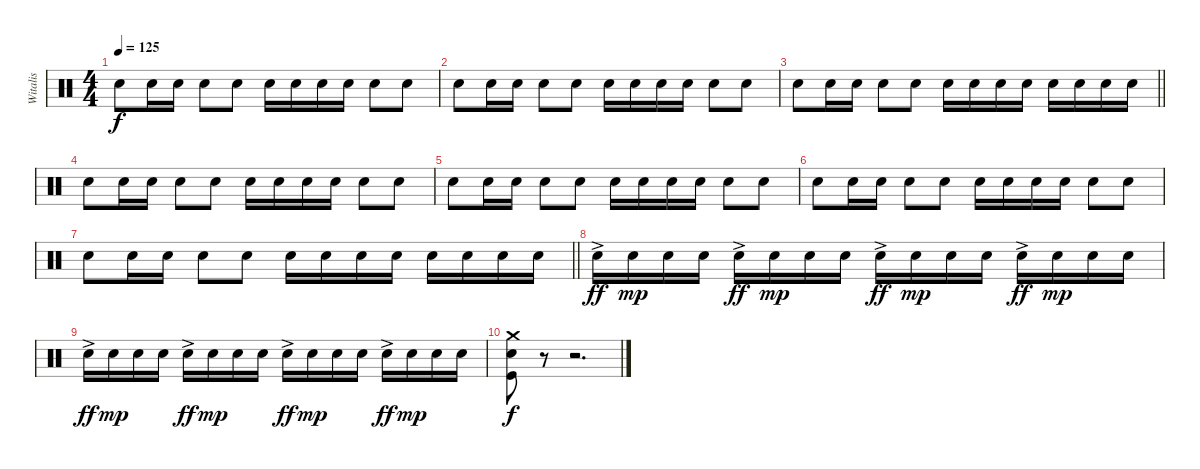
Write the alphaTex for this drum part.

\track ("Witalis" "Witalis") {instrument percussion}
\staff {score}
\articulation defaults
\ts (4 4)
\tempo 125
\clef neutral
\ks c "Snare (hit) 2".8{dy f} "Snare (hit) 2".16 "Snare (hit) 2".16 "Snare (hit) 2".8 "Snare (hit) 2".8 "Snare (hit) 2".16 "Snare (hit) 2".16 "Snare (hit) 2".16 "Snare (hit) 2".16 "Snare (hit) 2".8 "Snare (hit) 2".8
|
"Snare (hit) 2".8 "Snare (hit) 2".16 "Snare (hit) 2".16 "Snare (hit) 2".8 "Snare (hit) 2".8 "Snare (hit) 2".16 "Snare (hit) 2".16 "Snare (hit) 2".16 "Snare (hit) 2".16 "Snare (hit) 2".8 "Snare (hit) 2".8 |
\barLineRight lightlight "Snare (hit) 2".8 "Snare (hit) 2".16 "Snare (hit) 2".16 "Snare (hit) 2".8 "Snare (hit) 2".8 "Snare (hit) 2".16 "Snare (hit) 2".16 "Snare (hit) 2".16 "Snare (hit) 2".16 "Snare (hit) 2".16 "Snare (hit) 2".16 "Snare (hit) 2".16 "Snare (hit) 2".16
|
"Snare (hit) 2".8 "Snare (hit) 2".16 "Snare (hit) 2".16 "Snare (hit) 2".8 "Snare (hit) 2".8 "Snare (hit) 2".16 "Snare (hit) 2".16 "Snare (hit) 2".16 "Snare (hit) 2".16 "Snare (hit) 2".8 "Snare (hit) 2".8 |
"Snare (hit) 2".8 "Snare (hit) 2".16 "Snare (hit) 2".16 "Snare (hit) 2".8 "Snare (hit) 2".8 "Snare (hit) 2".16 "Snare (hit) 2".16 "Snare (hit) 2".16 "Snare (hit) 2".16 "Snare (hit) 2".8 "Snare (hit) 2".8 |
"Snare (hit) 2".8 "Snare (hit) 2".16 "Snare (hit) 2".16 "Snare (hit) 2".8 "Snare (hit) 2".8 "Snare (hit) 2".16 "Snare (hit) 2".16 "Snare (hit) 2".16 "Snare (hit) 2".16 "Snare (hit) 2".8 "Snare (hit) 2".8 |
\barLineRight lightlight "Snare (hit) 2".8 "Snare (hit) 2".16 "Snare (hit) 2".16 "Snare (hit) 2".8 "Snare (hit) 2".8 "Snare (hit) 2".16 "Snare (hit) 2".16 "Snare (hit) 2".16 "Snare (hit) 2".16 "Snare (hit) 2".16 "Snare (hit) 2".16 "Snare (hit) 2".16 "Snare (hit) 2".16
|
"Snare (hit) 2"{ac}.16{dy ff} "Snare (hit) 2".16{dy mp} "Snare (hit) 2".16 "Snare (hit) 2".16 "Snare (hit) 2"{ac}.16{dy ff} "Snare (hit) 2".16{dy mp} "Snare (hit) 2".16 "Snare (hit) 2".16 "Snare (hit) 2"{ac}.16{dy ff} "Snare (hit) 2".16{dy mp} "Snare (hit) 2".16 "Snare (hit) 2".16 "Snare (hit) 2"{ac}.16{dy ff} "Snare (hit) 2".16{dy mp} "Snare (hit) 2".16 "Snare (hit) 2".16 |
"Snare (hit) 2"{ac}.16{dy ff} "Snare (hit) 2".16{dy mp} "Snare (hit) 2".16 "Snare (hit) 2".16 "Snare (hit) 2"{ac}.16{dy ff} "Snare (hit) 2".16{dy mp} "Snare (hit) 2".16 "Snare (hit) 2".16 "Snare (hit) 2"{ac}.16{dy ff} "Snare (hit) 2".16{dy mp} "Snare (hit) 2".16 "Snare (hit) 2".16 "Snare (hit) 2"{ac}.16{dy ff} "Snare (hit) 2".16{dy mp} "Snare (hit) 2".16 "Snare (hit) 2".16 |
("Kick (hit)" "Snare (hit) 2" "Crash medium (hit)").8{dy f} r.8 r.2{d}
